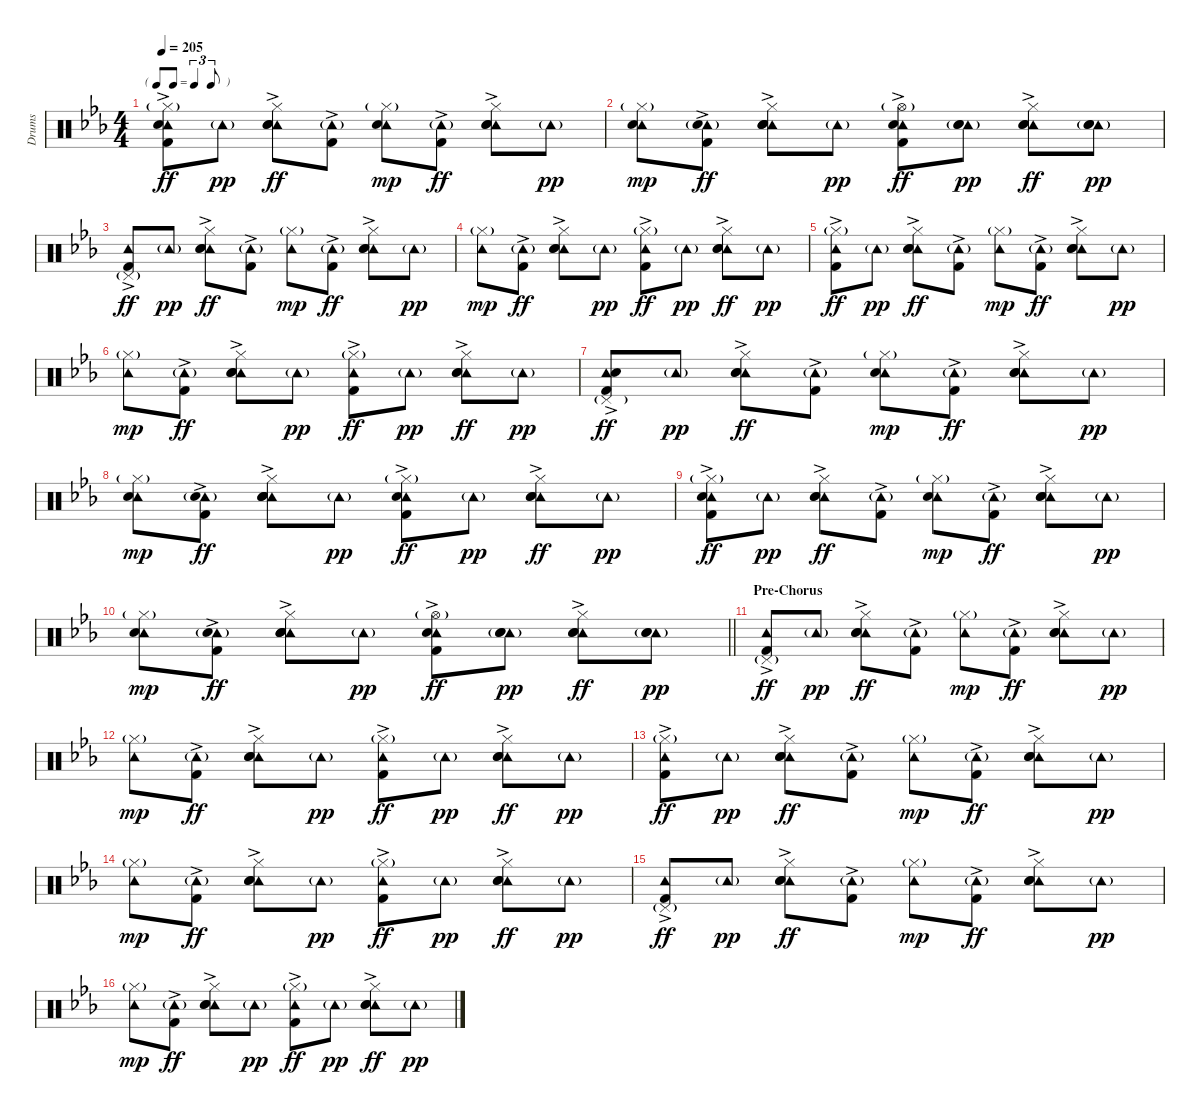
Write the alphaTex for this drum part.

\track ("Drums" "Drums") {instrument percussion}
\staff {score}
\articulation defaults
\ts (4 4)
\tf triplet8th
\tempo 205
\clef neutral
\ks eb
("Hi-Hat (closed)"{g} "Tambourine (hit)" "Hand Clap (hit)" "Kick (hit) 2"{ac}).8{dy ff} "Tambourine (hit)"{g}.8{dy pp} ("Hi-Hat (closed)" "Tambourine (hit)"{ac} "Electric Snare (hit)"{ac} "Snare (hit) 2").8{dy ff} ("Tambourine (hit)"{g} "Kick (hit) 2"{ac}).8 ("Hi-Hat (closed)"{g} "Tambourine (hit)" "Hand Clap (hit)").8{dy mp} ("Tambourine (hit)"{g} "Kick (hit) 2"{ac}).8{dy ff} ("Hi-Hat (closed)" "Tambourine (hit)"{ac} "Electric Snare (hit)"{ac} "Snare (hit) 2").8 "Tambourine (hit)"{g}.8{dy pp} |
("Hi-Hat (closed)"{g} "Tambourine (hit)" "Hand Clap (hit)").8{dy mp} ("Tambourine (hit)"{g} "Hand Clap (hit)" "Kick (hit) 2"{ac}).8{dy ff} ("Hi-Hat (closed)" "Tambourine (hit)"{ac} "Hand Clap (hit)" "Electric Snare (hit)"{ac} "Snare (hit) 2").8 "Tambourine (hit)"{g}.8{dy pp} ("Hi-Hat (open)"{g} "Tambourine (hit)" "Hand Clap (hit)" "Kick (hit) 2"{ac}).8{dy ff} ("Tambourine (hit)"{g} "Electric Snare (hit)" "Snare (hit) 2").8{dy pp} ("Hi-Hat (closed)" "Tambourine (hit)"{ac} "Electric Snare (hit)"{ac} "Snare (hit) 2").8{dy ff} ("Tambourine (hit)"{g} "Electric Snare (hit)" "Snare (hit) 2").8{dy pp} |
("Pedal Hi-Hat (hit)"{g} "Tambourine (hit)" "Kick (hit) 2"{ac}).8{dy ff} "Tambourine (hit)"{g}.8{dy pp} ("Hi-Hat (closed)" "Tambourine (hit)"{ac} "Electric Snare (hit)"{ac} "Snare (hit) 2").8{dy ff} ("Tambourine (hit)"{g} "Kick (hit) 2"{ac}).8 ("Hi-Hat (closed)"{g} "Tambourine (hit)").8{dy mp} ("Tambourine (hit)"{g} "Kick (hit) 2"{ac}).8{dy ff} ("Hi-Hat (closed)" "Tambourine (hit)"{ac} "Electric Snare (hit)"{ac} "Snare (hit) 2").8 "Tambourine (hit)"{g}.8{dy pp} |
("Hi-Hat (closed)"{g} "Tambourine (hit)").8{dy mp} ("Tambourine (hit)"{g} "Kick (hit) 2"{ac}).8{dy ff} ("Hi-Hat (closed)" "Tambourine (hit)"{ac} "Electric Snare (hit)"{ac} "Snare (hit) 2").8 "Tambourine (hit)"{g}.8{dy pp} ("Hi-Hat (closed)"{g} "Tambourine (hit)" "Kick (hit) 2"{ac}).8{dy ff} "Tambourine (hit)"{g}.8{dy pp} ("Hi-Hat (closed)" "Tambourine (hit)"{ac} "Electric Snare (hit)"{ac} "Snare (hit) 2").8{dy ff} "Tambourine (hit)"{g}.8{dy pp} |
("Hi-Hat (closed)"{g} "Tambourine (hit)" "Kick (hit) 2"{ac}).8{dy ff} "Tambourine (hit)"{g}.8{dy pp} ("Hi-Hat (closed)" "Tambourine (hit)"{ac} "Electric Snare (hit)"{ac} "Snare (hit) 2").8{dy ff} ("Tambourine (hit)"{g} "Kick (hit) 2"{ac}).8 ("Hi-Hat (closed)"{g} "Tambourine (hit)").8{dy mp} ("Tambourine (hit)"{g} "Kick (hit) 2"{ac}).8{dy ff} ("Hi-Hat (closed)" "Tambourine (hit)"{ac} "Electric Snare (hit)"{ac} "Snare (hit) 2").8 "Tambourine (hit)"{g}.8{dy pp} |
("Hi-Hat (closed)"{g} "Tambourine (hit)").8{dy mp} ("Tambourine (hit)"{g} "Kick (hit) 2"{ac}).8{dy ff} ("Hi-Hat (closed)" "Tambourine (hit)"{ac} "Electric Snare (hit)"{ac} "Snare (hit) 2").8 "Tambourine (hit)"{g}.8{dy pp} ("Hi-Hat (closed)"{g} "Tambourine (hit)" "Kick (hit) 2"{ac}).8{dy ff} "Tambourine (hit)"{g}.8{dy pp} ("Hi-Hat (closed)" "Tambourine (hit)"{ac} "Electric Snare (hit)"{ac} "Snare (hit) 2").8{dy ff} "Tambourine (hit)"{g}.8{dy pp} |
("Pedal Hi-Hat (hit)"{g} "Tambourine (hit)" "Hand Clap (hit)" "Kick (hit) 2"{ac}).8{dy ff} "Tambourine (hit)"{g}.8{dy pp} ("Hi-Hat (closed)" "Tambourine (hit)"{ac} "Electric Snare (hit)"{ac} "Snare (hit) 2").8{dy ff} ("Tambourine (hit)"{g} "Kick (hit) 2"{ac}).8 ("Hi-Hat (closed)"{g} "Tambourine (hit)" "Hand Clap (hit)").8{dy mp} ("Tambourine (hit)"{g} "Kick (hit) 2"{ac}).8{dy ff} ("Hi-Hat (closed)" "Tambourine (hit)"{ac} "Electric Snare (hit)"{ac} "Snare (hit) 2").8 "Tambourine (hit)"{g}.8{dy pp} |
("Hi-Hat (closed)"{g} "Tambourine (hit)" "Hand Clap (hit)").8{dy mp} ("Tambourine (hit)"{g} "Hand Clap (hit)" "Kick (hit) 2"{ac}).8{dy ff} ("Hi-Hat (closed)" "Tambourine (hit)"{ac} "Hand Clap (hit)" "Electric Snare (hit)"{ac} "Snare (hit) 2").8 "Tambourine (hit)"{g}.8{dy pp} ("Hi-Hat (closed)"{g} "Tambourine (hit)" "Hand Clap (hit)" "Kick (hit) 2"{ac}).8{dy ff} "Tambourine (hit)"{g}.8{dy pp} ("Hi-Hat (closed)" "Tambourine (hit)"{ac} "Electric Snare (hit)"{ac} "Snare (hit) 2").8{dy ff} "Tambourine (hit)"{g}.8{dy pp} |
("Hi-Hat (closed)"{g} "Tambourine (hit)" "Hand Clap (hit)" "Kick (hit) 2"{ac}).8{dy ff} "Tambourine (hit)"{g}.8{dy pp} ("Hi-Hat (closed)" "Tambourine (hit)"{ac} "Electric Snare (hit)"{ac} "Snare (hit) 2").8{dy ff} ("Tambourine (hit)"{g} "Kick (hit) 2"{ac}).8 ("Hi-Hat (closed)"{g} "Tambourine (hit)" "Hand Clap (hit)").8{dy mp} ("Tambourine (hit)"{g} "Kick (hit) 2"{ac}).8{dy ff} ("Hi-Hat (closed)" "Tambourine (hit)"{ac} "Electric Snare (hit)"{ac} "Snare (hit) 2").8 "Tambourine (hit)"{g}.8{dy pp} |
\barLineRight lightlight
("Hi-Hat (closed)"{g} "Tambourine (hit)" "Hand Clap (hit)").8{dy mp} ("Tambourine (hit)"{g} "Hand Clap (hit)" "Kick (hit) 2"{ac}).8{dy ff} ("Hi-Hat (closed)" "Tambourine (hit)"{ac} "Hand Clap (hit)" "Electric Snare (hit)"{ac} "Snare (hit) 2").8 "Tambourine (hit)"{g}.8{dy pp} ("Hi-Hat (open)"{g} "Tambourine (hit)" "Hand Clap (hit)" "Kick (hit) 2"{ac}).8{dy ff} ("Tambourine (hit)"{g} "Electric Snare (hit)" "Snare (hit) 2").8{dy pp} ("Hi-Hat (closed)" "Tambourine (hit)"{ac} "Electric Snare (hit)"{ac} "Snare (hit) 2").8{dy ff} ("Tambourine (hit)"{g} "Electric Snare (hit)" "Snare (hit) 2").8{dy pp} |
\section ("" "Pre-Chorus")
("Pedal Hi-Hat (hit)"{g} "Tambourine (hit)" "Kick (hit) 2"{ac}).8{dy ff} "Tambourine (hit)"{g}.8{dy pp} ("Hi-Hat (closed)" "Tambourine (hit)"{ac} "Electric Snare (hit)"{ac} "Snare (hit) 2").8{dy ff} ("Tambourine (hit)"{g} "Kick (hit) 2"{ac}).8 ("Hi-Hat (closed)"{g} "Tambourine (hit)").8{dy mp} ("Tambourine (hit)"{g} "Kick (hit) 2"{ac}).8{dy ff} ("Hi-Hat (closed)" "Tambourine (hit)"{ac} "Electric Snare (hit)"{ac} "Snare (hit) 2").8 "Tambourine (hit)"{g}.8{dy pp} |
("Hi-Hat (closed)"{g} "Tambourine (hit)").8{dy mp} ("Tambourine (hit)"{g} "Kick (hit) 2"{ac}).8{dy ff} ("Hi-Hat (closed)" "Tambourine (hit)"{ac} "Electric Snare (hit)"{ac} "Snare (hit) 2").8 "Tambourine (hit)"{g}.8{dy pp} ("Hi-Hat (closed)"{g} "Tambourine (hit)" "Kick (hit) 2"{ac}).8{dy ff} "Tambourine (hit)"{g}.8{dy pp} ("Hi-Hat (closed)" "Tambourine (hit)"{ac} "Electric Snare (hit)"{ac} "Snare (hit) 2").8{dy ff} "Tambourine (hit)"{g}.8{dy pp} |
("Hi-Hat (closed)"{g} "Tambourine (hit)" "Kick (hit) 2"{ac}).8{dy ff} "Tambourine (hit)"{g}.8{dy pp} ("Hi-Hat (closed)" "Tambourine (hit)"{ac} "Electric Snare (hit)"{ac} "Snare (hit) 2").8{dy ff} ("Tambourine (hit)"{g} "Kick (hit) 2"{ac}).8 ("Hi-Hat (closed)"{g} "Tambourine (hit)").8{dy mp} ("Tambourine (hit)"{g} "Kick (hit) 2"{ac}).8{dy ff} ("Hi-Hat (closed)" "Tambourine (hit)"{ac} "Electric Snare (hit)"{ac} "Snare (hit) 2").8 "Tambourine (hit)"{g}.8{dy pp} |
("Hi-Hat (closed)"{g} "Tambourine (hit)").8{dy mp} ("Tambourine (hit)"{g} "Kick (hit) 2"{ac}).8{dy ff} ("Hi-Hat (closed)" "Tambourine (hit)"{ac} "Electric Snare (hit)"{ac} "Snare (hit) 2").8 "Tambourine (hit)"{g}.8{dy pp} ("Hi-Hat (closed)"{g} "Tambourine (hit)" "Kick (hit) 2"{ac}).8{dy ff} "Tambourine (hit)"{g}.8{dy pp} ("Hi-Hat (closed)" "Tambourine (hit)"{ac} "Electric Snare (hit)"{ac} "Snare (hit) 2").8{dy ff} "Tambourine (hit)"{g}.8{dy pp} |
("Pedal Hi-Hat (hit)"{g} "Tambourine (hit)" "Kick (hit) 2"{ac}).8{dy ff} "Tambourine (hit)"{g}.8{dy pp} ("Hi-Hat (closed)" "Tambourine (hit)"{ac} "Electric Snare (hit)"{ac} "Snare (hit) 2").8{dy ff} ("Tambourine (hit)"{g} "Kick (hit) 2"{ac}).8 ("Hi-Hat (closed)"{g} "Tambourine (hit)").8{dy mp} ("Tambourine (hit)"{g} "Kick (hit) 2"{ac}).8{dy ff} ("Hi-Hat (closed)" "Tambourine (hit)"{ac} "Electric Snare (hit)"{ac} "Snare (hit) 2").8 "Tambourine (hit)"{g}.8{dy pp} |
("Hi-Hat (closed)"{g} "Tambourine (hit)").8{dy mp} ("Tambourine (hit)"{g} "Kick (hit) 2"{ac}).8{dy ff} ("Hi-Hat (closed)" "Tambourine (hit)"{ac} "Electric Snare (hit)"{ac} "Snare (hit) 2").8 "Tambourine (hit)"{g}.8{dy pp} ("Hi-Hat (closed)"{g} "Tambourine (hit)" "Kick (hit) 2"{ac}).8{dy ff} "Tambourine (hit)"{g}.8{dy pp} ("Hi-Hat (closed)" "Tambourine (hit)"{ac} "Electric Snare (hit)"{ac} "Snare (hit) 2").8{dy ff} "Tambourine (hit)"{g}.8{dy pp}
